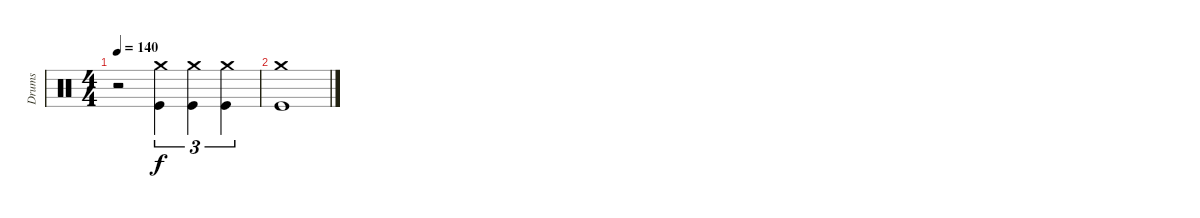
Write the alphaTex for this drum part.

\track ("Drums" "Drums") {instrument percussion}
\staff {score}
\articulation defaults
\ts (4 4)
\tempo 140
\clef neutral
\ks c
r.2{dy f} ("Crash medium (hit)" "Kick (hit)").4{tu (3 2)} ("Crash medium (hit)" "Kick (hit)").4{tu (3 2)} ("Crash medium (hit)" "Kick (hit)").4{tu (3 2)} |
("Crash medium (hit)" "Kick (hit)").1
